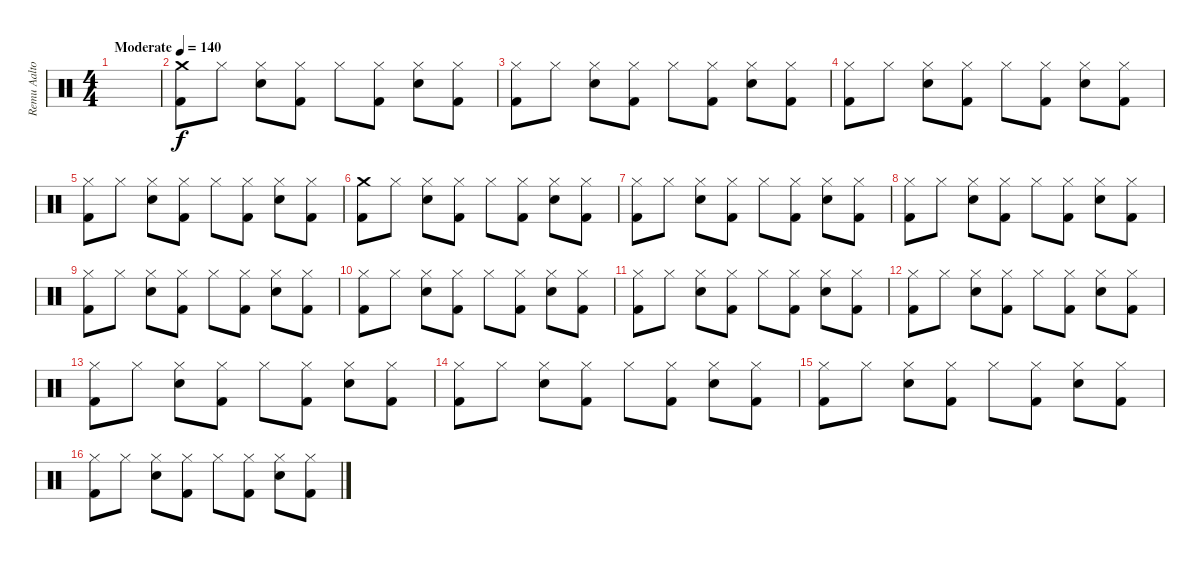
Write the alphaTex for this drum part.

\track ("Remu Aaltonen" "Remu Aalto") {instrument percussion}
\staff {score}
\articulation defaults
\ts (4 4)
\tempo (140 "Moderate")
\clef neutral
\ks c
|
("Crash medium (hit)" "Kick (hit) 2").8 "Hi-Hat (closed)".8 ("Hi-Hat (closed)" "Snare (hit) 2").8 ("Hi-Hat (closed)" "Kick (hit) 2").8 "Hi-Hat (closed)".8 ("Hi-Hat (closed)" "Kick (hit) 2").8 ("Hi-Hat (closed)" "Snare (hit) 2").8 ("Hi-Hat (closed)" "Kick (hit) 2").8 |
("Hi-Hat (closed)" "Kick (hit) 2").8 "Hi-Hat (closed)".8 ("Hi-Hat (closed)" "Snare (hit) 2").8 ("Hi-Hat (closed)" "Kick (hit) 2").8 "Hi-Hat (closed)".8 ("Hi-Hat (closed)" "Kick (hit) 2").8 ("Hi-Hat (closed)" "Snare (hit) 2").8 ("Hi-Hat (closed)" "Kick (hit) 2").8 |
("Hi-Hat (closed)" "Kick (hit) 2").8 "Hi-Hat (closed)".8 ("Hi-Hat (closed)" "Snare (hit) 2").8 ("Hi-Hat (closed)" "Kick (hit) 2").8 "Hi-Hat (closed)".8 ("Hi-Hat (closed)" "Kick (hit) 2").8 ("Hi-Hat (closed)" "Snare (hit) 2").8 ("Hi-Hat (closed)" "Kick (hit) 2").8 |
("Hi-Hat (closed)" "Kick (hit) 2").8 "Hi-Hat (closed)".8 ("Hi-Hat (closed)" "Snare (hit) 2").8 ("Hi-Hat (closed)" "Kick (hit) 2").8 "Hi-Hat (closed)".8 ("Hi-Hat (closed)" "Kick (hit) 2").8 ("Hi-Hat (closed)" "Snare (hit) 2").8 ("Hi-Hat (closed)" "Kick (hit) 2").8 |
("Crash medium (hit)" "Kick (hit) 2").8 "Hi-Hat (closed)".8 ("Hi-Hat (closed)" "Snare (hit) 2").8 ("Hi-Hat (closed)" "Kick (hit) 2").8 "Hi-Hat (closed)".8 ("Hi-Hat (closed)" "Kick (hit) 2").8 ("Hi-Hat (closed)" "Snare (hit) 2").8 ("Hi-Hat (closed)" "Kick (hit) 2").8 |
("Hi-Hat (closed)" "Kick (hit) 2").8 "Hi-Hat (closed)".8 ("Hi-Hat (closed)" "Snare (hit) 2").8 ("Hi-Hat (closed)" "Kick (hit) 2").8 "Hi-Hat (closed)".8 ("Hi-Hat (closed)" "Kick (hit) 2").8 ("Hi-Hat (closed)" "Snare (hit) 2").8 ("Hi-Hat (closed)" "Kick (hit) 2").8 |
("Hi-Hat (closed)" "Kick (hit) 2").8 "Hi-Hat (closed)".8 ("Hi-Hat (closed)" "Snare (hit) 2").8 ("Hi-Hat (closed)" "Kick (hit) 2").8 "Hi-Hat (closed)".8 ("Hi-Hat (closed)" "Kick (hit) 2").8 ("Hi-Hat (closed)" "Snare (hit) 2").8 ("Hi-Hat (closed)" "Kick (hit) 2").8 |
("Hi-Hat (closed)" "Kick (hit) 2").8 "Hi-Hat (closed)".8 ("Hi-Hat (closed)" "Snare (hit) 2").8 ("Hi-Hat (closed)" "Kick (hit) 2").8 "Hi-Hat (closed)".8 ("Hi-Hat (closed)" "Kick (hit) 2").8 ("Hi-Hat (closed)" "Snare (hit) 2").8 ("Hi-Hat (closed)" "Kick (hit) 2").8 |
("Hi-Hat (closed)" "Kick (hit) 2").8 "Hi-Hat (closed)".8 ("Hi-Hat (closed)" "Snare (hit) 2").8 ("Hi-Hat (closed)" "Kick (hit) 2").8 "Hi-Hat (closed)".8 ("Hi-Hat (closed)" "Kick (hit) 2").8 ("Hi-Hat (closed)" "Snare (hit) 2").8 ("Hi-Hat (closed)" "Kick (hit) 2").8 |
("Hi-Hat (closed)" "Kick (hit) 2").8 "Hi-Hat (closed)".8 ("Hi-Hat (closed)" "Snare (hit) 2").8 ("Hi-Hat (closed)" "Kick (hit) 2").8 "Hi-Hat (closed)".8 ("Hi-Hat (closed)" "Kick (hit) 2").8 ("Hi-Hat (closed)" "Snare (hit) 2").8 ("Hi-Hat (closed)" "Kick (hit) 2").8 |
("Hi-Hat (closed)" "Kick (hit) 2").8 "Hi-Hat (closed)".8 ("Hi-Hat (closed)" "Snare (hit) 2").8 ("Hi-Hat (closed)" "Kick (hit) 2").8 "Hi-Hat (closed)".8 ("Hi-Hat (closed)" "Kick (hit) 2").8 ("Hi-Hat (closed)" "Snare (hit) 2").8 ("Hi-Hat (closed)" "Kick (hit) 2").8 |
("Hi-Hat (closed)" "Kick (hit) 2").8 "Hi-Hat (closed)".8 ("Hi-Hat (closed)" "Snare (hit) 2").8 ("Hi-Hat (closed)" "Kick (hit) 2").8 "Hi-Hat (closed)".8 ("Hi-Hat (closed)" "Kick (hit) 2").8 ("Hi-Hat (closed)" "Snare (hit) 2").8 ("Hi-Hat (closed)" "Kick (hit) 2").8 |
("Hi-Hat (closed)" "Kick (hit) 2").8 "Hi-Hat (closed)".8 ("Hi-Hat (closed)" "Snare (hit) 2").8 ("Hi-Hat (closed)" "Kick (hit) 2").8 "Hi-Hat (closed)".8 ("Hi-Hat (closed)" "Kick (hit) 2").8 ("Hi-Hat (closed)" "Snare (hit) 2").8 ("Hi-Hat (closed)" "Kick (hit) 2").8 |
("Hi-Hat (closed)" "Kick (hit) 2").8 "Hi-Hat (closed)".8 ("Hi-Hat (closed)" "Snare (hit) 2").8 ("Hi-Hat (closed)" "Kick (hit) 2").8 "Hi-Hat (closed)".8 ("Hi-Hat (closed)" "Kick (hit) 2").8 ("Hi-Hat (closed)" "Snare (hit) 2").8 ("Hi-Hat (closed)" "Kick (hit) 2").8 |
("Hi-Hat (closed)" "Kick (hit) 2").8 "Hi-Hat (closed)".8 ("Hi-Hat (closed)" "Snare (hit) 2").8 ("Hi-Hat (closed)" "Kick (hit) 2").8 "Hi-Hat (closed)".8 ("Hi-Hat (closed)" "Kick (hit) 2").8 ("Hi-Hat (closed)" "Snare (hit) 2").8 ("Hi-Hat (closed)" "Kick (hit) 2").8
